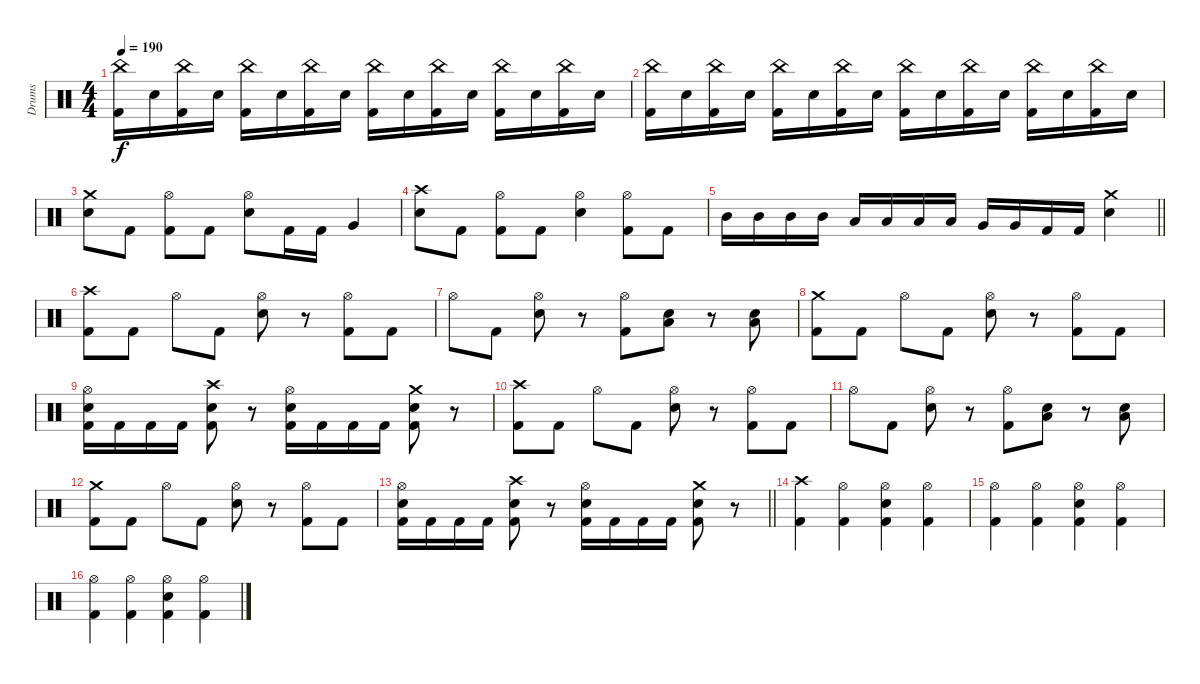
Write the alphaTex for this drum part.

\track ("Drums" "Drums") {instrument percussion}
\staff {score}
\articulation defaults
\ts (4 4)
\tempo 190
\clef neutral
\ks c
("China (hit)" "Kick (hit) 2").16{dy f} "Snare (hit) 2".16 ("China (hit)" "Kick (hit) 2").16 "Snare (hit) 2".16 ("China (hit)" "Kick (hit) 2").16 "Snare (hit) 2".16 ("China (hit)" "Kick (hit) 2").16 "Snare (hit) 2".16 ("China (hit)" "Kick (hit) 2").16 "Snare (hit) 2".16 ("China (hit)" "Kick (hit) 2").16 "Snare (hit) 2".16 ("China (hit)" "Kick (hit) 2").16 "Snare (hit) 2".16 ("China (hit)" "Kick (hit) 2").16 "Snare (hit) 2".16 |
("China (hit)" "Kick (hit) 2").16 "Snare (hit) 2".16 ("China (hit)" "Kick (hit) 2").16 "Snare (hit) 2".16 ("China (hit)" "Kick (hit) 2").16 "Snare (hit) 2".16 ("China (hit)" "Kick (hit) 2").16 "Snare (hit) 2".16 ("China (hit)" "Kick (hit) 2").16 "Snare (hit) 2".16 ("China (hit)" "Kick (hit) 2").16 "Snare (hit) 2".16 ("China (hit)" "Kick (hit) 2").16 "Snare (hit) 2".16 ("China (hit)" "Kick (hit) 2").16 "Snare (hit) 2".16 |
("Crash medium (hit)" "Snare (hit) 2").8 "Kick (hit) 2".8 ("Hi-Hat (open)" "Kick (hit) 2").8 "Kick (hit) 2".8 ("Hi-Hat (open)" "Snare (hit) 2").8 "Kick (hit) 2".16 "Kick (hit) 2".16 "Very Low Tom (hit)".4 |
("Crash high (hit)" "Snare (hit) 2").8 "Kick (hit) 2".8 ("Hi-Hat (open)" "Kick (hit) 2").8 "Kick (hit) 2".8 ("Hi-Hat (open)" "Snare (hit) 2").4 ("Hi-Hat (open)" "Kick (hit) 2").8 "Kick (hit) 2".8 |
\barLineRight lightlight "Mid Tom (hit)".16 "Mid Tom (hit)".16 "Mid Tom (hit)".16 "Mid Tom (hit)".16 "Low Tom (hit)".16 "Low Tom (hit)".16 "Low Tom (hit)".16 "Low Tom (hit)".16 "Very Low Tom (hit)".16 "Very Low Tom (hit)".16 "Kick (hit) 2".16 "Kick (hit) 2".16
("Crash medium (hit)" "Snare (hit) 2").4 |
\section ("" "")
("Crash high (hit)" "Kick (hit) 2").8 "Kick (hit) 2".8 "Hi-Hat (open)".8 "Kick (hit) 2".8 ("Hi-Hat (open)" "Snare (hit) 2").8 r.8 ("Hi-Hat (open)" "Kick (hit) 2").8 "Kick (hit) 2".8 |
"Hi-Hat (open)".8 "Kick (hit) 2".8 ("Hi-Hat (open)" "Snare (hit) 2").8 r.8 ("Hi-Hat (open)" "Kick (hit) 2").8 ("Low Tom (hit)" "Snare (hit) 2").8 r.8 ("Low Tom (hit)" "Snare (hit) 2").8 |
("Crash medium (hit)" "Kick (hit) 2").8 "Kick (hit) 2".8 "Hi-Hat (open)".8 "Kick (hit) 2".8 ("Hi-Hat (open)" "Snare (hit) 2").8 r.8 ("Hi-Hat (open)" "Kick (hit) 2").8 "Kick (hit) 2".8 |
("Hi-Hat (open)" "Snare (hit) 2" "Kick (hit) 2").16 "Kick (hit) 2".16 "Kick (hit) 2".16 "Kick (hit) 2".16 ("Crash high (hit)" "Snare (hit) 2" "Kick (hit) 2").8 r.8 ("Hi-Hat (open)" "Snare (hit) 2" "Kick (hit) 2").16 "Kick (hit) 2".16 "Kick (hit) 2".16 "Kick (hit) 2".16 ("Crash medium (hit)" "Snare (hit) 2" "Kick (hit) 2").8 r.8 |
("Crash high (hit)" "Kick (hit) 2").8 "Kick (hit) 2".8 "Hi-Hat (open)".8 "Kick (hit) 2".8 ("Hi-Hat (open)" "Snare (hit) 2").8 r.8 ("Hi-Hat (open)" "Kick (hit) 2").8 "Kick (hit) 2".8 |
"Hi-Hat (open)".8 "Kick (hit) 2".8 ("Hi-Hat (open)" "Snare (hit) 2").8 r.8 ("Hi-Hat (open)" "Kick (hit) 2").8 ("Low Tom (hit)" "Snare (hit) 2").8 r.8 ("Low Tom (hit)" "Snare (hit) 2").8 |
("Crash medium (hit)" "Kick (hit) 2").8 "Kick (hit) 2".8 "Hi-Hat (open)".8 "Kick (hit) 2".8 ("Hi-Hat (open)" "Snare (hit) 2").8 r.8 ("Hi-Hat (open)" "Kick (hit) 2").8 "Kick (hit) 2".8 |
\barLineRight lightlight
("Hi-Hat (open)" "Snare (hit) 2" "Kick (hit) 2").16 "Kick (hit) 2".16 "Kick (hit) 2".16 "Kick (hit) 2".16 ("Crash high (hit)" "Snare (hit) 2" "Kick (hit) 2").8 r.8 ("Hi-Hat (open)" "Snare (hit) 2" "Kick (hit) 2").16 "Kick (hit) 2".16 "Kick (hit) 2".16 "Kick (hit) 2".16 ("Crash medium (hit)" "Snare (hit) 2" "Kick (hit) 2").8 r.8 |
\section ("" "")
("Crash high (hit)" "Kick (hit) 2").4 ("Hi-Hat (open)" "Kick (hit) 2").4 ("Hi-Hat (open)" "Snare (hit) 2" "Kick (hit) 2").4 ("Hi-Hat (open)" "Kick (hit) 2").4 |
("Hi-Hat (open)" "Kick (hit) 2").4 ("Hi-Hat (open)" "Kick (hit) 2").4 ("Hi-Hat (open)" "Snare (hit) 2" "Kick (hit) 2").4 ("Hi-Hat (open)" "Kick (hit) 2").4 |
("Hi-Hat (open)" "Kick (hit) 2").4 ("Hi-Hat (open)" "Kick (hit) 2").4 ("Hi-Hat (open)" "Snare (hit) 2" "Kick (hit) 2").4 ("Hi-Hat (open)" "Kick (hit) 2").4
